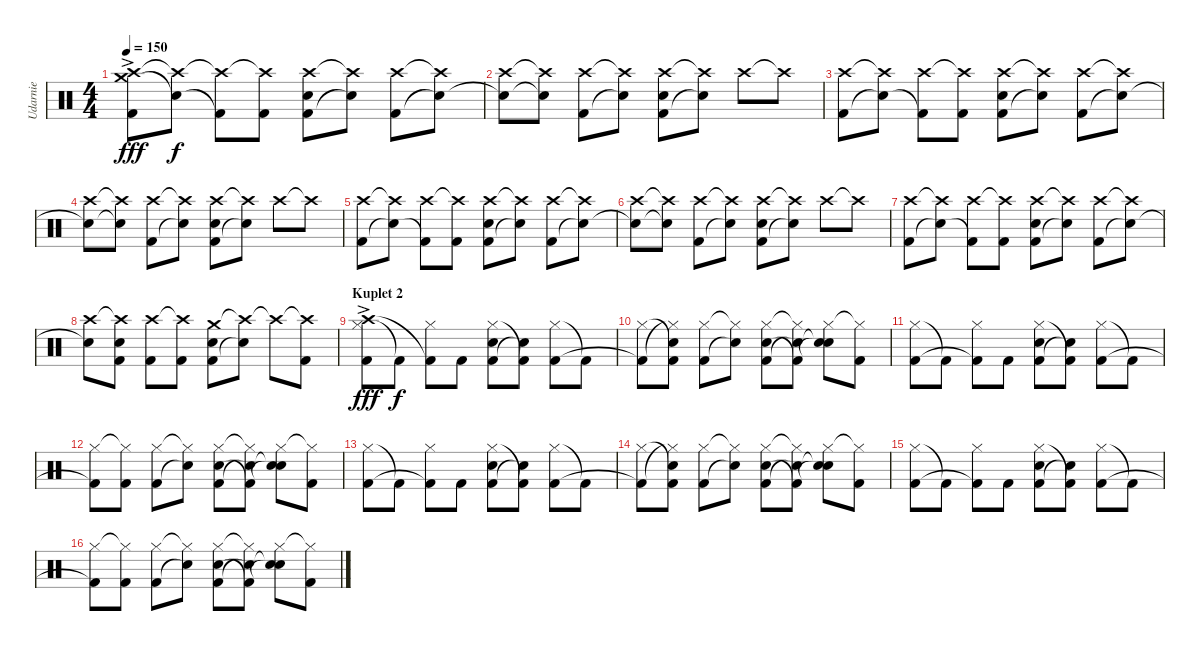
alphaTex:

\track ("Udarnie" "Udarnie") {instrument percussion}
\staff {score}
\articulation defaults
\ts (4 4)
\tempo 150
\clef neutral
\ks c
("Crash high (hit)"{ac} "Crash medium (hit)"{ac} "Kick (hit) 2").8{dy fff} ("Crash high (hit)"{t} "Snare (hit)"{t}).8{dy f} ("Crash high (hit)"{t} "Kick (hit) 2"{t}).8 ("Crash high (hit)"{t} "Kick (hit) 2").8 ("Crash high (hit)" "Kick (hit) 2" "Snare (hit) 2").8 ("Crash high (hit)"{t} "Snare (hit)"{t}).8 ("Crash high (hit)" "Kick (hit) 2").8 ("Crash high (hit)"{t} "Snare (hit) 2"{t}).8 |
("Crash high (hit)" "Snare (hit)"{t}).8 ("Crash high (hit)"{t} "Snare (hit)"{t}).8 ("Crash high (hit)" "Kick (hit) 2").8 ("Crash high (hit)"{t} "Snare (hit)"{t}).8 ("Crash high (hit)" "Kick (hit) 2" "Snare (hit) 2").8 ("Crash high (hit)"{t} "Snare (hit)"{t}).8 "Crash high (hit)".8 "Crash high (hit)"{t}.8 |
("Crash high (hit)" "Kick (hit) 2").8 ("Crash high (hit)"{t} "Snare (hit)"{t}).8 ("Crash high (hit)" "Kick (hit) 2"{t}).8 ("Crash high (hit)"{t} "Kick (hit) 2").8 ("Crash high (hit)" "Kick (hit) 2" "Snare (hit) 2").8 ("Crash high (hit)"{t} "Snare (hit)"{t}).8 ("Crash high (hit)" "Kick (hit) 2").8 ("Crash high (hit)"{t} "Snare (hit) 2"{t}).8 |
("Crash high (hit)" "Snare (hit)"{t}).8 ("Crash high (hit)"{t} "Snare (hit)"{t}).8 ("Crash high (hit)" "Kick (hit) 2").8 ("Crash high (hit)"{t} "Snare (hit)"{t}).8 ("Crash high (hit)" "Kick (hit) 2" "Snare (hit) 2").8 ("Crash high (hit)"{t} "Snare (hit)"{t}).8 "Crash high (hit)".8 "Crash high (hit)"{t}.8 |
("Crash high (hit)" "Kick (hit) 2").8 ("Crash high (hit)"{t} "Snare (hit)"{t}).8 ("Crash high (hit)" "Kick (hit) 2"{t}).8 ("Crash high (hit)"{t} "Kick (hit) 2").8 ("Crash high (hit)" "Kick (hit) 2" "Snare (hit) 2").8 ("Crash high (hit)"{t} "Snare (hit)"{t}).8 ("Crash high (hit)" "Kick (hit) 2").8 ("Crash high (hit)"{t} "Snare (hit) 2"{t}).8 |
("Crash high (hit)" "Snare (hit)"{t}).8 ("Crash high (hit)"{t} "Snare (hit)"{t}).8 ("Crash high (hit)" "Kick (hit) 2").8 ("Crash high (hit)"{t} "Snare (hit)"{t}).8 ("Crash high (hit)" "Kick (hit) 2" "Snare (hit) 2").8 ("Crash high (hit)"{t} "Snare (hit)"{t}).8 "Crash high (hit)".8 "Crash high (hit)"{t}.8 |
("Crash high (hit)" "Kick (hit) 2").8 ("Crash high (hit)"{t} "Snare (hit)"{t}).8 ("Crash high (hit)" "Kick (hit) 2"{t}).8 ("Crash high (hit)"{t} "Kick (hit) 2").8 ("Crash high (hit)" "Kick (hit) 2" "Snare (hit) 2").8 ("Crash high (hit)"{t} "Snare (hit)"{t}).8 ("Crash high (hit)" "Kick (hit) 2").8 ("Crash high (hit)"{t} "Snare (hit) 2"{t}).8 |
("Crash high (hit)" "Snare (hit)"{t}).8 ("Crash high (hit)"{t} "Kick (hit) 2" "Snare (hit) 2").8 ("Crash high (hit)" "Kick (hit) 2").8 ("Crash high (hit)"{t} "Kick (hit) 2").8 ("Crash medium (hit)" "Kick (hit) 2" "Snare (hit) 2").8 ("Crash high (hit)"{t} "Snare (hit)"{t}).8 "Crash high (hit)"{t}.8 ("Crash high (hit)"{t} "Kick (hit) 2").8 |
\section ("" "Kuplet 2")
("Hi-Hat (closed)" "Crash high (hit)"{ac} "Kick (hit) 2").8{dy fff} "Kick (hit) 2"{t}.8{dy f} ("Hi-Hat (closed)" "Kick (hit) 2"{t}).8 "Kick (hit) 2".8 ("Hi-Hat (closed)" "Kick (hit) 2" "Snare (hit) 2").8 ("Kick (hit) 2"{t} "Snare (hit) 2"{t}).8 ("Hi-Hat (closed)" "Kick (hit) 2").8 "Kick (hit) 2"{t}.8 |
("Hi-Hat (closed)" "Kick (hit) 2"{t}).8 ("Snare (hit)"{t} "Hi-Hat (closed)"{t} "Kick (hit) 2").8 ("Hi-Hat (closed)" "Kick (hit) 2").8 ("Hi-Hat (closed)"{t} "Snare (hit)"{t}).8 ("Hi-Hat (closed)" "Snare (hit) 2" "Kick (hit) 2").8 ("Hi-Hat (closed)"{t} "Kick (hit) 2"{t} "Snare (hit) 2"{t}).8 ("Hi-Hat (closed)" "Snare (hit)"{t} "Snare (hit)"{t}).8 ("Hi-Hat (closed)"{t} "Kick (hit) 2").8 |
("Hi-Hat (closed)" "Kick (hit) 2").8 "Kick (hit) 2"{t}.8 ("Hi-Hat (closed)" "Kick (hit) 2"{t}).8 "Kick (hit) 2".8 ("Hi-Hat (closed)" "Kick (hit) 2" "Snare (hit) 2").8 ("Kick (hit) 2"{t} "Snare (hit) 2"{t}).8 ("Hi-Hat (closed)" "Kick (hit) 2").8 "Kick (hit) 2"{t}.8 |
("Hi-Hat (closed)" "Kick (hit) 2"{t}).8 ("Hi-Hat (closed)"{t} "Kick (hit) 2").8 ("Hi-Hat (closed)" "Kick (hit) 2").8 ("Hi-Hat (closed)"{t} "Snare (hit)"{t}).8 ("Hi-Hat (closed)" "Snare (hit) 2" "Kick (hit) 2").8 ("Hi-Hat (closed)"{t} "Kick (hit) 2"{t} "Snare (hit) 2"{t}).8 ("Hi-Hat (closed)" "Snare (hit)"{t} "Snare (hit)"{t}).8 ("Hi-Hat (closed)"{t} "Kick (hit) 2").8 |
("Hi-Hat (closed)" "Kick (hit) 2").8 "Kick (hit) 2"{t}.8 ("Hi-Hat (closed)" "Kick (hit) 2"{t}).8 "Kick (hit) 2".8 ("Hi-Hat (closed)" "Kick (hit) 2" "Snare (hit) 2").8 ("Kick (hit) 2"{t} "Snare (hit) 2"{t}).8 ("Hi-Hat (closed)" "Kick (hit) 2").8 "Kick (hit) 2"{t}.8 |
("Hi-Hat (closed)" "Kick (hit) 2"{t}).8 ("Snare (hit)"{t} "Hi-Hat (closed)"{t} "Kick (hit) 2").8 ("Hi-Hat (closed)" "Kick (hit) 2").8 ("Hi-Hat (closed)"{t} "Snare (hit)"{t}).8 ("Hi-Hat (closed)" "Snare (hit) 2" "Kick (hit) 2").8 ("Hi-Hat (closed)"{t} "Kick (hit) 2"{t} "Snare (hit) 2"{t}).8 ("Hi-Hat (closed)" "Snare (hit)"{t} "Snare (hit)"{t}).8 ("Hi-Hat (closed)"{t} "Kick (hit) 2").8 |
("Hi-Hat (closed)" "Kick (hit) 2").8 "Kick (hit) 2"{t}.8 ("Hi-Hat (closed)" "Kick (hit) 2"{t}).8 "Kick (hit) 2".8 ("Hi-Hat (closed)" "Kick (hit) 2" "Snare (hit) 2").8 ("Kick (hit) 2"{t} "Snare (hit) 2"{t}).8 ("Hi-Hat (closed)" "Kick (hit) 2").8 "Kick (hit) 2"{t}.8 |
("Hi-Hat (closed)" "Kick (hit) 2"{t}).8 ("Hi-Hat (closed)"{t} "Kick (hit) 2").8 ("Hi-Hat (closed)" "Kick (hit) 2").8 ("Hi-Hat (closed)"{t} "Snare (hit)"{t}).8 ("Hi-Hat (closed)" "Snare (hit) 2" "Kick (hit) 2").8 ("Hi-Hat (closed)"{t} "Kick (hit) 2"{t} "Snare (hit) 2"{t}).8 ("Hi-Hat (closed)" "Snare (hit)"{t} "Snare (hit)"{t}).8 ("Hi-Hat (closed)"{t} "Kick (hit) 2").8
